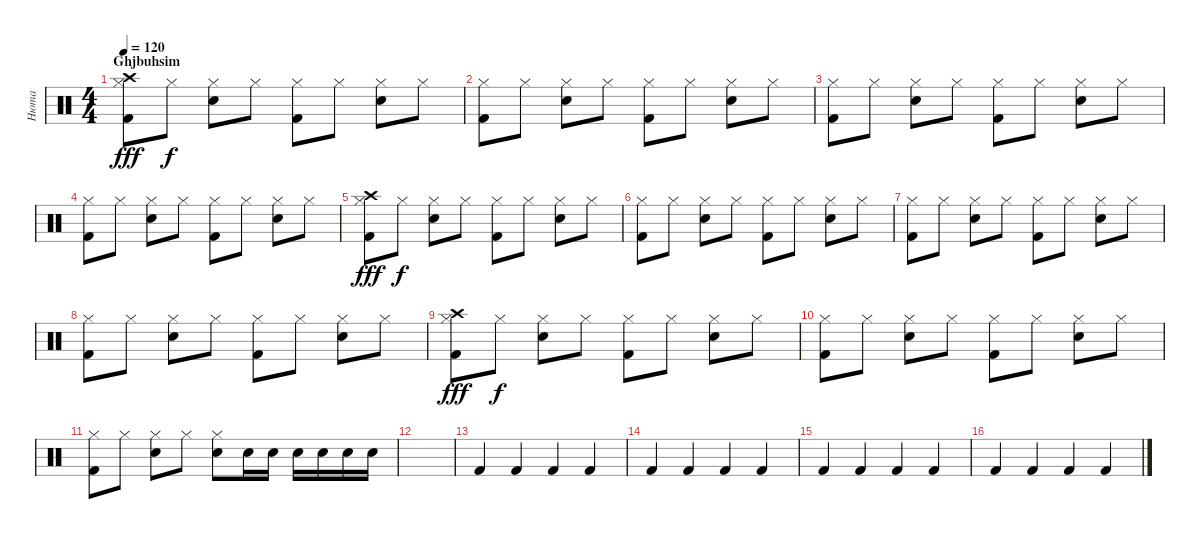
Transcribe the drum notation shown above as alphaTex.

\track ("Нюта" "Нюта") {instrument percussion}
\staff {score}
\articulation defaults
\ts (4 4)
\section ("" "Ghjbuhsim")
\tempo 120
\clef neutral
\ks c
("Hi-Hat (closed)" "Kick (hit) 2" "Crash high (hit)").8{dy fff} "Hi-Hat (closed)".8{dy f} ("Hi-Hat (closed)" "Electric Snare (hit)").8 "Hi-Hat (closed)".8 ("Hi-Hat (closed)" "Kick (hit) 2").8 "Hi-Hat (closed)".8 ("Hi-Hat (closed)" "Electric Snare (hit)").8 "Hi-Hat (closed)".8 |
("Hi-Hat (closed)" "Kick (hit) 2").8 "Hi-Hat (closed)".8 ("Hi-Hat (closed)" "Electric Snare (hit)").8 "Hi-Hat (closed)".8 ("Hi-Hat (closed)" "Kick (hit) 2").8 "Hi-Hat (closed)".8 ("Hi-Hat (closed)" "Electric Snare (hit)").8 "Hi-Hat (closed)".8 |
("Hi-Hat (closed)" "Kick (hit) 2").8 "Hi-Hat (closed)".8 ("Hi-Hat (closed)" "Electric Snare (hit)").8 "Hi-Hat (closed)".8 ("Hi-Hat (closed)" "Kick (hit) 2").8 "Hi-Hat (closed)".8 ("Hi-Hat (closed)" "Electric Snare (hit)").8 "Hi-Hat (closed)".8 |
("Hi-Hat (closed)" "Kick (hit) 2").8 "Hi-Hat (closed)".8 ("Hi-Hat (closed)" "Electric Snare (hit)").8 "Hi-Hat (closed)".8 ("Hi-Hat (closed)" "Kick (hit) 2").8 "Hi-Hat (closed)".8 ("Hi-Hat (closed)" "Electric Snare (hit)").8 "Hi-Hat (closed)".8 |
("Hi-Hat (closed)" "Kick (hit) 2" "Crash high (hit)").8{dy fff} "Hi-Hat (closed)".8{dy f} ("Hi-Hat (closed)" "Electric Snare (hit)").8 "Hi-Hat (closed)".8 ("Hi-Hat (closed)" "Kick (hit) 2").8 "Hi-Hat (closed)".8 ("Hi-Hat (closed)" "Electric Snare (hit)").8 "Hi-Hat (closed)".8 |
("Hi-Hat (closed)" "Kick (hit) 2").8 "Hi-Hat (closed)".8 ("Hi-Hat (closed)" "Electric Snare (hit)").8 "Hi-Hat (closed)".8 ("Hi-Hat (closed)" "Kick (hit) 2").8 "Hi-Hat (closed)".8 ("Hi-Hat (closed)" "Electric Snare (hit)").8 "Hi-Hat (closed)".8 |
("Hi-Hat (closed)" "Kick (hit) 2").8 "Hi-Hat (closed)".8 ("Hi-Hat (closed)" "Electric Snare (hit)").8 "Hi-Hat (closed)".8 ("Hi-Hat (closed)" "Kick (hit) 2").8 "Hi-Hat (closed)".8 ("Hi-Hat (closed)" "Electric Snare (hit)").8 "Hi-Hat (closed)".8 |
("Hi-Hat (closed)" "Kick (hit) 2").8 "Hi-Hat (closed)".8 ("Hi-Hat (closed)" "Electric Snare (hit)").8 "Hi-Hat (closed)".8 ("Hi-Hat (closed)" "Kick (hit) 2").8 "Hi-Hat (closed)".8 ("Hi-Hat (closed)" "Electric Snare (hit)").8 "Hi-Hat (closed)".8 |
("Hi-Hat (closed)" "Kick (hit) 2" "Crash high (hit)").8{dy fff} "Hi-Hat (closed)".8{dy f} ("Hi-Hat (closed)" "Electric Snare (hit)").8 "Hi-Hat (closed)".8 ("Hi-Hat (closed)" "Kick (hit) 2").8 "Hi-Hat (closed)".8 ("Hi-Hat (closed)" "Electric Snare (hit)").8 "Hi-Hat (closed)".8 |
("Hi-Hat (closed)" "Kick (hit) 2").8 "Hi-Hat (closed)".8 ("Hi-Hat (closed)" "Electric Snare (hit)").8 "Hi-Hat (closed)".8 ("Hi-Hat (closed)" "Kick (hit) 2").8 "Hi-Hat (closed)".8 ("Hi-Hat (closed)" "Electric Snare (hit)").8 "Hi-Hat (closed)".8 |
("Hi-Hat (closed)" "Kick (hit) 2").8 "Hi-Hat (closed)".8 ("Hi-Hat (closed)" "Electric Snare (hit)").8 "Hi-Hat (closed)".8 ("Hi-Hat (closed)" "Electric Snare (hit)").8 "Snare (hit) 2".16 "Snare (hit) 2".16 "Snare (hit) 2".16 "Snare (hit) 2".16 "Snare (hit) 2".16 "Snare (hit) 2".16 |
|
"Kick (hit) 2".4 "Kick (hit) 2".4 "Kick (hit) 2".4 "Kick (hit) 2".4 |
"Kick (hit) 2".4 "Kick (hit) 2".4 "Kick (hit) 2".4 "Kick (hit) 2".4 |
"Kick (hit) 2".4 "Kick (hit) 2".4 "Kick (hit) 2".4 "Kick (hit) 2".4 |
"Kick (hit) 2".4 "Kick (hit) 2".4 "Kick (hit) 2".4 "Kick (hit) 2".4
